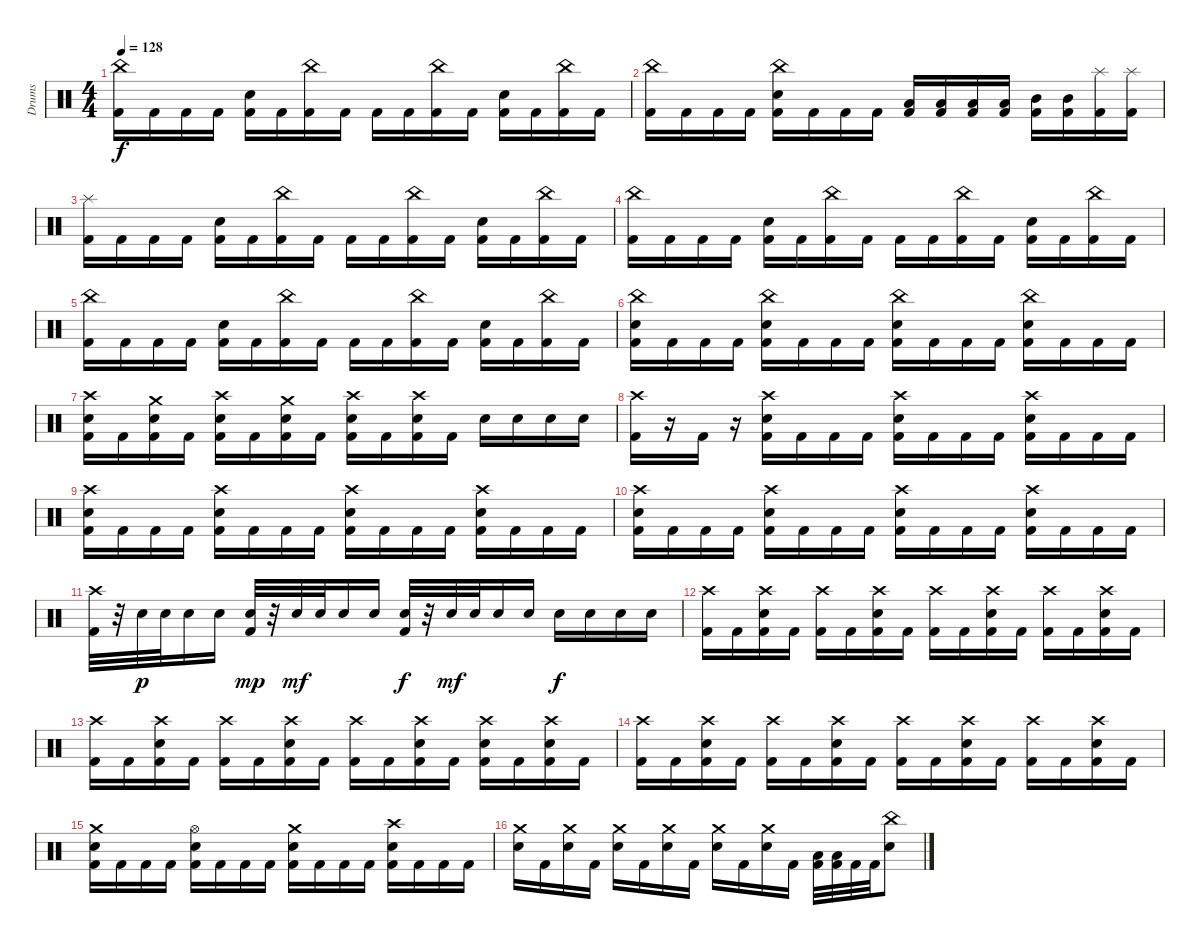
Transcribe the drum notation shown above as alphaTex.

\track ("Drums" "Drums") {instrument percussion}
\staff {score}
\articulation defaults
\ts (4 4)
\tempo 128
\clef neutral
\ks c
("China (hit)" "Kick (hit) 2").16{dy f} "Kick (hit) 2".16 "Kick (hit) 2".16 "Kick (hit) 2".16 ("Electric Snare (hit)" "Kick (hit) 2").16 "Kick (hit) 2".16 ("China (hit)" "Kick (hit) 2").16 "Kick (hit) 2".16 "Kick (hit) 2".16 "Kick (hit) 2".16 ("China (hit)" "Kick (hit) 2").16 "Kick (hit) 2".16 ("Electric Snare (hit)" "Kick (hit) 2").16 "Kick (hit) 2".16 ("China (hit)" "Kick (hit) 2").16 "Kick (hit) 2".16 |
("China (hit)" "Kick (hit) 2").16 "Kick (hit) 2".16 "Kick (hit) 2".16 "Kick (hit) 2".16 ("China (hit)" "Electric Snare (hit)" "Kick (hit) 2").16 "Kick (hit) 2".16 "Kick (hit) 2".16 "Kick (hit) 2".16 ("Low Tom (hit)" "Kick (hit) 2").16 ("Low Tom (hit)" "Kick (hit) 2").16 ("Low Tom (hit)" "Kick (hit) 2").16 ("Low Tom (hit)" "Kick (hit) 2").16 ("Mid Tom (hit)" "Kick (hit) 2").16 ("Mid Tom (hit)" "Kick (hit) 2").16 ("Splash (hit)" "Kick (hit) 2").16 ("Splash (hit)" "Kick (hit) 2").16 |
("Splash (hit)" "Kick (hit) 2").16 "Kick (hit) 2".16 "Kick (hit) 2".16 "Kick (hit) 2".16 ("Electric Snare (hit)" "Kick (hit) 2").16 "Kick (hit) 2".16 ("China (hit)" "Kick (hit) 2").16 "Kick (hit) 2".16 "Kick (hit) 2".16 "Kick (hit) 2".16 ("China (hit)" "Kick (hit) 2").16 "Kick (hit) 2".16 ("Electric Snare (hit)" "Kick (hit) 2").16 "Kick (hit) 2".16 ("China (hit)" "Kick (hit) 2").16 "Kick (hit) 2".16 |
("China (hit)" "Kick (hit) 2").16 "Kick (hit) 2".16 "Kick (hit) 2".16 "Kick (hit) 2".16 ("Electric Snare (hit)" "Kick (hit) 2").16 "Kick (hit) 2".16 ("China (hit)" "Kick (hit) 2").16 "Kick (hit) 2".16 "Kick (hit) 2".16 "Kick (hit) 2".16 ("China (hit)" "Kick (hit) 2").16 "Kick (hit) 2".16 ("Electric Snare (hit)" "Kick (hit) 2").16 "Kick (hit) 2".16 ("China (hit)" "Kick (hit) 2").16 "Kick (hit) 2".16 |
("China (hit)" "Kick (hit) 2").16 "Kick (hit) 2".16 "Kick (hit) 2".16 "Kick (hit) 2".16 ("Electric Snare (hit)" "Kick (hit) 2").16 "Kick (hit) 2".16 ("China (hit)" "Kick (hit) 2").16 "Kick (hit) 2".16 "Kick (hit) 2".16 "Kick (hit) 2".16 ("China (hit)" "Kick (hit) 2").16 "Kick (hit) 2".16 ("Electric Snare (hit)" "Kick (hit) 2").16 "Kick (hit) 2".16 ("China (hit)" "Kick (hit) 2").16 "Kick (hit) 2".16 |
("China (hit)" "Electric Snare (hit)" "Kick (hit) 2").16 "Kick (hit) 2".16 "Kick (hit) 2".16 "Kick (hit) 2".16 ("China (hit)" "Electric Snare (hit)" "Kick (hit) 2").16 "Kick (hit) 2".16 "Kick (hit) 2".16 "Kick (hit) 2".16 ("China (hit)" "Electric Snare (hit)" "Kick (hit) 2").16 "Kick (hit) 2".16 "Kick (hit) 2".16 "Kick (hit) 2".16 ("China (hit)" "Electric Snare (hit)" "Kick (hit) 2").16 "Kick (hit) 2".16 "Kick (hit) 2".16 "Kick (hit) 2".16 |
("Crash high (hit)" "Electric Snare (hit)" "Kick (hit) 2").16 "Kick (hit) 2".16 ("Crash medium (hit)" "Electric Snare (hit)" "Kick (hit) 2").16 "Kick (hit) 2".16 ("Crash high (hit)" "Electric Snare (hit)" "Kick (hit) 2").16 "Kick (hit) 2".16 ("Crash medium (hit)" "Electric Snare (hit)" "Kick (hit) 2").16 "Kick (hit) 2".16 ("Crash high (hit)" "Electric Snare (hit)" "Kick (hit) 2").16 "Kick (hit) 2".16 ("Crash high (hit)" "Electric Snare (hit)" "Kick (hit) 2").16 "Kick (hit) 2".16 "Electric Snare (hit)".16 "Electric Snare (hit)".16 "Electric Snare (hit)".16 "Electric Snare (hit)".16 |
("Crash high (hit)" "Kick (hit) 2").16 r.16 "Kick (hit) 2".16 r.16 ("Crash high (hit)" "Electric Snare (hit)" "Kick (hit) 2").16 "Kick (hit) 2".16 "Kick (hit) 2".16 "Kick (hit) 2".16 ("Crash high (hit)" "Electric Snare (hit)" "Kick (hit) 2").16 "Kick (hit) 2".16 "Kick (hit) 2".16 "Kick (hit) 2".16 ("Crash high (hit)" "Electric Snare (hit)" "Kick (hit) 2").16 "Kick (hit) 2".16 "Kick (hit) 2".16 "Kick (hit) 2".16 |
("Crash high (hit)" "Electric Snare (hit)" "Kick (hit) 2").16 "Kick (hit) 2".16 "Kick (hit) 2".16 "Kick (hit) 2".16 ("Crash high (hit)" "Electric Snare (hit)" "Kick (hit) 2").16 "Kick (hit) 2".16 "Kick (hit) 2".16 "Kick (hit) 2".16 ("Crash high (hit)" "Electric Snare (hit)" "Kick (hit) 2").16 "Kick (hit) 2".16 "Kick (hit) 2".16 "Kick (hit) 2".16 ("Crash high (hit)" "Electric Snare (hit)" "Kick (hit) 2").16 "Kick (hit) 2".16 "Kick (hit) 2".16 "Kick (hit) 2".16 |
("Crash high (hit)" "Electric Snare (hit)" "Kick (hit) 2").16 "Kick (hit) 2".16 "Kick (hit) 2".16 "Kick (hit) 2".16 ("Crash high (hit)" "Electric Snare (hit)" "Kick (hit) 2").16 "Kick (hit) 2".16 "Kick (hit) 2".16 "Kick (hit) 2".16 ("Crash high (hit)" "Electric Snare (hit)" "Kick (hit) 2").16 "Kick (hit) 2".16 "Kick (hit) 2".16 "Kick (hit) 2".16 ("Crash high (hit)" "Electric Snare (hit)" "Kick (hit) 2").16 "Kick (hit) 2".16 "Kick (hit) 2".16 "Kick (hit) 2".16 |
("Crash high (hit)" "Kick (hit) 2").32 r.32 "Electric Snare (hit)".32{dy p} "Electric Snare (hit)".32 "Electric Snare (hit)".16 "Electric Snare (hit)".16 ("Electric Snare (hit)" "Kick (hit) 2").32{dy mp} r.32 "Electric Snare (hit)".32{dy mf} "Electric Snare (hit)".32 "Electric Snare (hit)".16 "Electric Snare (hit)".16 ("Electric Snare (hit)" "Kick (hit) 2").32{dy f} r.32 "Electric Snare (hit)".32{dy mf} "Electric Snare (hit)".32 "Electric Snare (hit)".16 "Electric Snare (hit)".16 "Electric Snare (hit)".16{dy f} "Electric Snare (hit)".16 "Electric Snare (hit)".16 "Electric Snare (hit)".16 |
("Crash high (hit)" "Kick (hit) 2").16 "Kick (hit) 2".16 ("Crash high (hit)" "Electric Snare (hit)" "Kick (hit) 2").16 "Kick (hit) 2".16 ("Crash high (hit)" "Kick (hit) 2").16 "Kick (hit) 2".16 ("Crash high (hit)" "Electric Snare (hit)" "Kick (hit) 2").16 "Kick (hit) 2".16 ("Crash high (hit)" "Kick (hit) 2").16 "Kick (hit) 2".16 ("Crash high (hit)" "Electric Snare (hit)" "Kick (hit) 2").16 "Kick (hit) 2".16 ("Crash high (hit)" "Kick (hit) 2").16 "Kick (hit) 2".16 ("Crash high (hit)" "Electric Snare (hit)" "Kick (hit) 2").16 "Kick (hit) 2".16 |
("Crash high (hit)" "Kick (hit) 2").16 "Kick (hit) 2".16 ("Crash high (hit)" "Electric Snare (hit)" "Kick (hit) 2").16 "Kick (hit) 2".16 ("Crash high (hit)" "Kick (hit) 2").16 "Kick (hit) 2".16 ("Crash high (hit)" "Electric Snare (hit)" "Kick (hit) 2").16 "Kick (hit) 2".16 ("Crash high (hit)" "Kick (hit) 2").16 "Kick (hit) 2".16 ("Crash high (hit)" "Electric Snare (hit)" "Kick (hit) 2").16 "Kick (hit) 2".16 ("Crash high (hit)" "Electric Snare (hit)" "Kick (hit) 2").16 "Kick (hit) 2".16 ("Crash high (hit)" "Electric Snare (hit)" "Kick (hit) 2").16 "Kick (hit) 2".16 |
("Crash high (hit)" "Kick (hit) 2").16 "Kick (hit) 2".16 ("Crash high (hit)" "Electric Snare (hit)" "Kick (hit) 2").16 "Kick (hit) 2".16 ("Crash high (hit)" "Kick (hit) 2").16 "Kick (hit) 2".16 ("Crash high (hit)" "Electric Snare (hit)" "Kick (hit) 2").16 "Kick (hit) 2".16 ("Crash high (hit)" "Kick (hit) 2").16 "Kick (hit) 2".16 ("Crash high (hit)" "Electric Snare (hit)" "Kick (hit) 2").16 "Kick (hit) 2".16 ("Crash high (hit)" "Kick (hit) 2").16 "Kick (hit) 2".16 ("Crash high (hit)" "Electric Snare (hit)" "Kick (hit) 2").16 "Kick (hit) 2".16 |
("Crash medium (hit)" "Electric Snare (hit)" "Kick (hit) 2").16 "Kick (hit) 2".16 "Kick (hit) 2".16 "Kick (hit) 2".16 ("Hi-Hat (open)" "Electric Snare (hit)" "Kick (hit) 2").16 "Kick (hit) 2".16 "Kick (hit) 2".16 "Kick (hit) 2".16 ("Crash medium (hit)" "Electric Snare (hit)" "Kick (hit) 2").16 "Kick (hit) 2".16 "Kick (hit) 2".16 "Kick (hit) 2".16 ("Crash high (hit)" "Electric Snare (hit)" "Kick (hit) 2").16 "Kick (hit) 2".16 "Kick (hit) 2".16 "Kick (hit) 2".16 |
("Crash medium (hit)" "Electric Snare (hit)").16 "Kick (hit) 2".16 ("Crash medium (hit)" "Electric Snare (hit)").16 "Kick (hit) 2".16 ("Crash medium (hit)" "Electric Snare (hit)").16 "Kick (hit) 2".16 ("Crash medium (hit)" "Electric Snare (hit)").16 "Kick (hit) 2".16 ("Crash medium (hit)" "Electric Snare (hit)").16 "Kick (hit) 2".16 ("Crash medium (hit)" "Electric Snare (hit)").16 "Kick (hit) 2".16 ("Low Tom (hit)" "Kick (hit) 2").32 ("Low Tom (hit)" "Kick (hit) 2").32 "Kick (hit) 2".32 "Kick (hit) 2".32 ("China (hit)" "Electric Snare (hit)").8
